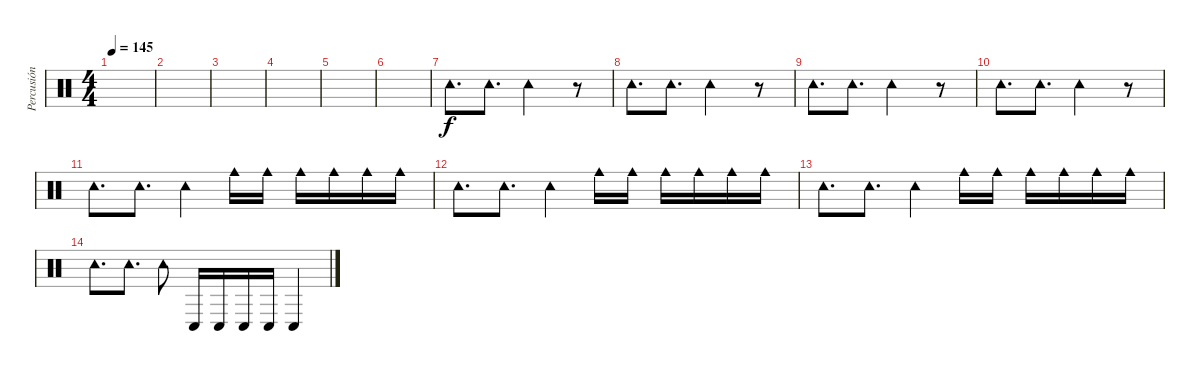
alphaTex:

\track ("Percusión" "Percusión") {instrument percussion}
\staff {score}
\articulation defaults
\ts (4 4)
\tempo 145
\clef neutral
\ks c
|
|
|
|
|
|
"Tambourine (hit)".8{d} "Tambourine (hit)".8{d} "Tambourine (hit)".2 r.8 |
"Tambourine (hit)".8{d} "Tambourine (hit)".8{d} "Tambourine (hit)".2 r.8 |
"Tambourine (hit)".8{d} "Tambourine (hit)".8{d} "Tambourine (hit)".2 r.8 |
"Tambourine (hit)".8{d} "Tambourine (hit)".8{d} "Tambourine (hit)".2 r.8 |
"Tambourine (hit)".8{d} "Tambourine (hit)".8{d} "Tambourine (hit)".4 "Cowbell medium (hit)".16 "Cowbell medium (hit)".16 "Cowbell medium (hit)".16 "Cowbell medium (hit)".16 "Cowbell medium (hit)".16 "Cowbell medium (hit)".16 |
"Tambourine (hit)".8{d} "Tambourine (hit)".8{d} "Tambourine (hit)".4 "Cowbell medium (hit)".16 "Cowbell medium (hit)".16 "Cowbell medium (hit)".16 "Cowbell medium (hit)".16 "Cowbell medium (hit)".16 "Cowbell medium (hit)".16 |
"Tambourine (hit)".8{d} "Tambourine (hit)".8{d} "Tambourine (hit)".4 "Cowbell medium (hit)".16 "Cowbell medium (hit)".16 "Cowbell medium (hit)".16 "Cowbell medium (hit)".16 "Cowbell medium (hit)".16 "Cowbell medium (hit)".16 |
"Tambourine (hit)".8{d} "Tambourine (hit)".8{d} "Tambourine (hit)".8 "Conga low (hit)".16 "Conga low (hit)".16 "Conga low (hit)".16 "Conga low (hit)".16 "Conga low (hit)".4
